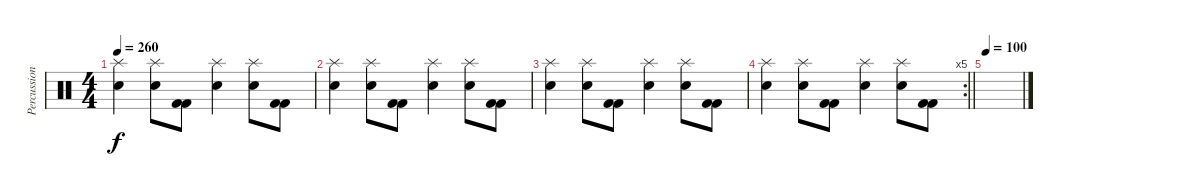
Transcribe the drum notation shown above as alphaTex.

\track ("Percussions" "Percussion") {instrument percussion}
\staff {score}
\articulation defaults
\ts (4 4)
\tempo 260
\clef neutral
\ks c
("Electric Snare (hit)" "Splash (hit)").4{dy f} ("Electric Snare (hit)" "Splash (hit)").8 ("Kick (hit) 2" "Kick (hit) 2").8 ("Electric Snare (hit)" "Splash (hit)").4 ("Electric Snare (hit)" "Splash (hit)").8 ("Kick (hit) 2" "Kick (hit) 2").8 |
("Electric Snare (hit)" "Splash (hit)").4 ("Electric Snare (hit)" "Splash (hit)").8 ("Kick (hit) 2" "Kick (hit) 2").8 ("Electric Snare (hit)" "Splash (hit)").4 ("Electric Snare (hit)" "Splash (hit)").8 ("Kick (hit) 2" "Kick (hit) 2").8 |
("Electric Snare (hit)" "Splash (hit)").4 ("Electric Snare (hit)" "Splash (hit)").8 ("Kick (hit) 2" "Kick (hit) 2").8 ("Electric Snare (hit)" "Splash (hit)").4 ("Electric Snare (hit)" "Splash (hit)").8 ("Kick (hit) 2" "Kick (hit) 2").8 |
\rc 5
\barLineRight lightlight
("Electric Snare (hit)" "Splash (hit)").4 ("Electric Snare (hit)" "Splash (hit)").8 ("Kick (hit) 2" "Kick (hit) 2").8 ("Electric Snare (hit)" "Splash (hit)").4 ("Electric Snare (hit)" "Splash (hit)").8 ("Kick (hit) 2" "Kick (hit) 2").8 |
\tempo 100
